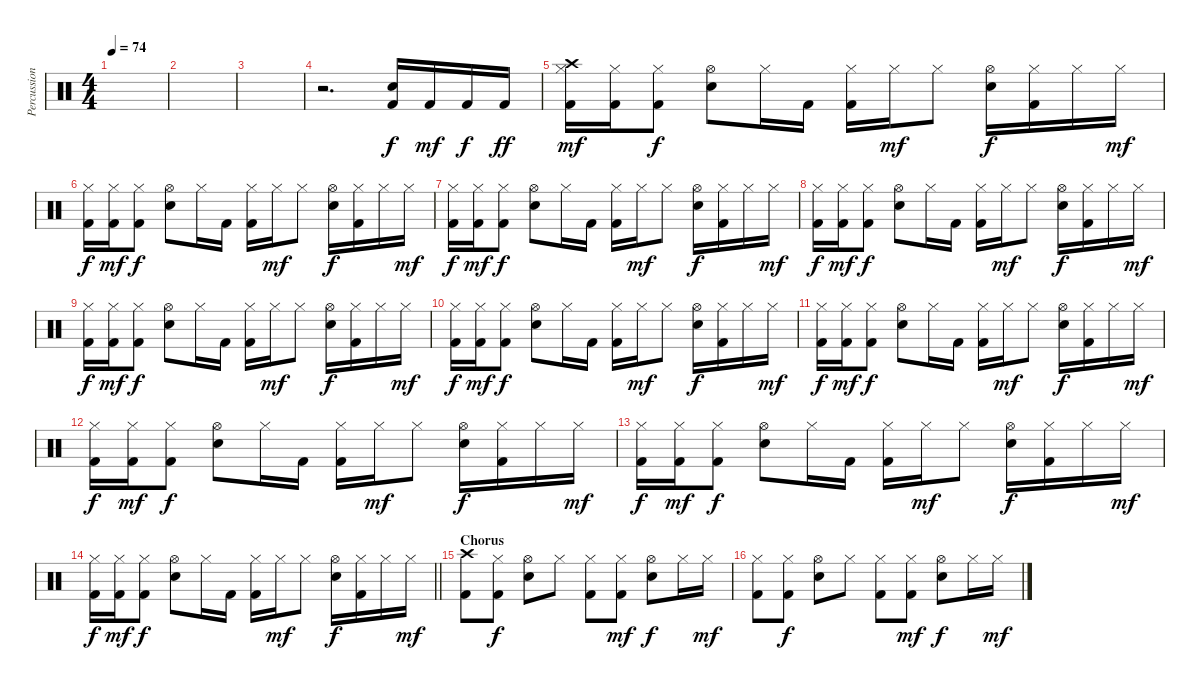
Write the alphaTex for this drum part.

\track ("Percussion" "Percussion") {instrument percussion}
\staff {score}
\articulation defaults
\ts (4 4)
\tempo 74
\clef neutral
\ks c
|
|
|
r.2{d} ("Electric Snare (hit)" "Kick (hit) 2").16 "Kick (hit) 2".16{dy mf} "Kick (hit) 2".16{dy f} "Kick (hit) 2".16{dy ff} |
("Crash high (hit)" "Hi-Hat (closed)" "Kick (hit) 2").16{dy mf} ("Hi-Hat (closed)" "Kick (hit) 2").16 ("Hi-Hat (closed)" "Kick (hit) 2").8{dy f} ("Hi-Hat (open)" "Electric Snare (hit)").8 "Hi-Hat (closed)".16 "Kick (hit) 2".16 ("Hi-Hat (closed)" "Kick (hit) 2").16 "Hi-Hat (closed)".16{dy mf} "Hi-Hat (closed)".8 ("Hi-Hat (open)" "Electric Snare (hit)").16{dy f} ("Hi-Hat (closed)" "Kick (hit) 2").16 "Hi-Hat (closed)".16 "Hi-Hat (closed)".16{dy mf} |
("Hi-Hat (closed)" "Kick (hit) 2").16{dy f} ("Hi-Hat (closed)" "Kick (hit) 2").16{dy mf} ("Hi-Hat (closed)" "Kick (hit) 2").8{dy f} ("Hi-Hat (open)" "Electric Snare (hit)").8 "Hi-Hat (closed)".16 "Kick (hit) 2".16 ("Hi-Hat (closed)" "Kick (hit) 2").16 "Hi-Hat (closed)".16{dy mf} "Hi-Hat (closed)".8 ("Hi-Hat (open)" "Electric Snare (hit)").16{dy f} ("Hi-Hat (closed)" "Kick (hit) 2").16 "Hi-Hat (closed)".16 "Hi-Hat (closed)".16{dy mf} |
("Hi-Hat (closed)" "Kick (hit) 2").16{dy f} ("Hi-Hat (closed)" "Kick (hit) 2").16{dy mf} ("Hi-Hat (closed)" "Kick (hit) 2").8{dy f} ("Hi-Hat (open)" "Electric Snare (hit)").8 "Hi-Hat (closed)".16 "Kick (hit) 2".16 ("Hi-Hat (closed)" "Kick (hit) 2").16 "Hi-Hat (closed)".16{dy mf} "Hi-Hat (closed)".8 ("Hi-Hat (open)" "Electric Snare (hit)").16{dy f} ("Hi-Hat (closed)" "Kick (hit) 2").16 "Hi-Hat (closed)".16 "Hi-Hat (closed)".16{dy mf} |
("Hi-Hat (closed)" "Kick (hit) 2").16{dy f} ("Hi-Hat (closed)" "Kick (hit) 2").16{dy mf} ("Hi-Hat (closed)" "Kick (hit) 2").8{dy f} ("Hi-Hat (open)" "Electric Snare (hit)").8 "Hi-Hat (closed)".16 "Kick (hit) 2".16 ("Hi-Hat (closed)" "Kick (hit) 2").16 "Hi-Hat (closed)".16{dy mf} "Hi-Hat (closed)".8 ("Hi-Hat (open)" "Electric Snare (hit)").16{dy f} ("Hi-Hat (closed)" "Kick (hit) 2").16 "Hi-Hat (closed)".16 "Hi-Hat (closed)".16{dy mf} |
("Hi-Hat (closed)" "Kick (hit) 2").16{dy f} ("Hi-Hat (closed)" "Kick (hit) 2").16{dy mf} ("Hi-Hat (closed)" "Kick (hit) 2").8{dy f} ("Hi-Hat (open)" "Electric Snare (hit)").8 "Hi-Hat (closed)".16 "Kick (hit) 2".16 ("Hi-Hat (closed)" "Kick (hit) 2").16 "Hi-Hat (closed)".16{dy mf} "Hi-Hat (closed)".8 ("Hi-Hat (open)" "Electric Snare (hit)").16{dy f} ("Hi-Hat (closed)" "Kick (hit) 2").16 "Hi-Hat (closed)".16 "Hi-Hat (closed)".16{dy mf} |
("Hi-Hat (closed)" "Kick (hit) 2").16{dy f} ("Hi-Hat (closed)" "Kick (hit) 2").16{dy mf} ("Hi-Hat (closed)" "Kick (hit) 2").8{dy f} ("Hi-Hat (open)" "Electric Snare (hit)").8 "Hi-Hat (closed)".16 "Kick (hit) 2".16 ("Hi-Hat (closed)" "Kick (hit) 2").16 "Hi-Hat (closed)".16{dy mf} "Hi-Hat (closed)".8 ("Hi-Hat (open)" "Electric Snare (hit)").16{dy f} ("Hi-Hat (closed)" "Kick (hit) 2").16 "Hi-Hat (closed)".16 "Hi-Hat (closed)".16{dy mf} |
("Hi-Hat (closed)" "Kick (hit) 2").16{dy f} ("Hi-Hat (closed)" "Kick (hit) 2").16{dy mf} ("Hi-Hat (closed)" "Kick (hit) 2").8{dy f} ("Hi-Hat (open)" "Electric Snare (hit)").8 "Hi-Hat (closed)".16 "Kick (hit) 2".16 ("Hi-Hat (closed)" "Kick (hit) 2").16 "Hi-Hat (closed)".16{dy mf} "Hi-Hat (closed)".8 ("Hi-Hat (open)" "Electric Snare (hit)").16{dy f} ("Hi-Hat (closed)" "Kick (hit) 2").16 "Hi-Hat (closed)".16 "Hi-Hat (closed)".16{dy mf} |
("Hi-Hat (closed)" "Kick (hit) 2").16{dy f} ("Hi-Hat (closed)" "Kick (hit) 2").16{dy mf} ("Hi-Hat (closed)" "Kick (hit) 2").8{dy f} ("Hi-Hat (open)" "Electric Snare (hit)").8 "Hi-Hat (closed)".16 "Kick (hit) 2".16 ("Hi-Hat (closed)" "Kick (hit) 2").16 "Hi-Hat (closed)".16{dy mf} "Hi-Hat (closed)".8 ("Hi-Hat (open)" "Electric Snare (hit)").16{dy f} ("Hi-Hat (closed)" "Kick (hit) 2").16 "Hi-Hat (closed)".16 "Hi-Hat (closed)".16{dy mf} |
("Hi-Hat (closed)" "Kick (hit) 2").16{dy f} ("Hi-Hat (closed)" "Kick (hit) 2").16{dy mf} ("Hi-Hat (closed)" "Kick (hit) 2").8{dy f} ("Hi-Hat (open)" "Electric Snare (hit)").8 "Hi-Hat (closed)".16 "Kick (hit) 2".16 ("Hi-Hat (closed)" "Kick (hit) 2").16 "Hi-Hat (closed)".16{dy mf} "Hi-Hat (closed)".8 ("Hi-Hat (open)" "Electric Snare (hit)").16{dy f} ("Hi-Hat (closed)" "Kick (hit) 2").16 "Hi-Hat (closed)".16 "Hi-Hat (closed)".16{dy mf} |
\barLineRight lightlight
("Hi-Hat (closed)" "Kick (hit) 2").16{dy f} ("Hi-Hat (closed)" "Kick (hit) 2").16{dy mf} ("Hi-Hat (closed)" "Kick (hit) 2").8{dy f} ("Hi-Hat (open)" "Electric Snare (hit)").8 "Hi-Hat (closed)".16 "Kick (hit) 2".16 ("Hi-Hat (closed)" "Kick (hit) 2").16 "Hi-Hat (closed)".16{dy mf} "Hi-Hat (closed)".8 ("Hi-Hat (open)" "Electric Snare (hit)").16{dy f} ("Hi-Hat (closed)" "Kick (hit) 2").16 "Hi-Hat (closed)".16 "Hi-Hat (closed)".16{dy mf} |
\section ("" "Chorus")
("Crash high (hit)" "Kick (hit) 2").8 ("Hi-Hat (closed)" "Kick (hit) 2").8{dy f} ("Hi-Hat (open)" "Electric Snare (hit)").8 "Hi-Hat (closed)".8 ("Hi-Hat (closed)" "Kick (hit) 2").8 ("Hi-Hat (closed)" "Kick (hit) 2").8{dy mf} ("Hi-Hat (open)" "Electric Snare (hit)").8{dy f} "Hi-Hat (closed)".16 "Hi-Hat (closed)".16{dy mf} |
("Hi-Hat (closed)" "Kick (hit) 2").8 ("Hi-Hat (closed)" "Kick (hit) 2").8{dy f} ("Hi-Hat (open)" "Electric Snare (hit)").8 "Hi-Hat (closed)".8 ("Hi-Hat (closed)" "Kick (hit) 2").8 ("Hi-Hat (closed)" "Kick (hit) 2").8{dy mf} ("Hi-Hat (open)" "Electric Snare (hit)").8{dy f} "Hi-Hat (closed)".16 "Hi-Hat (closed)".16{dy mf}
